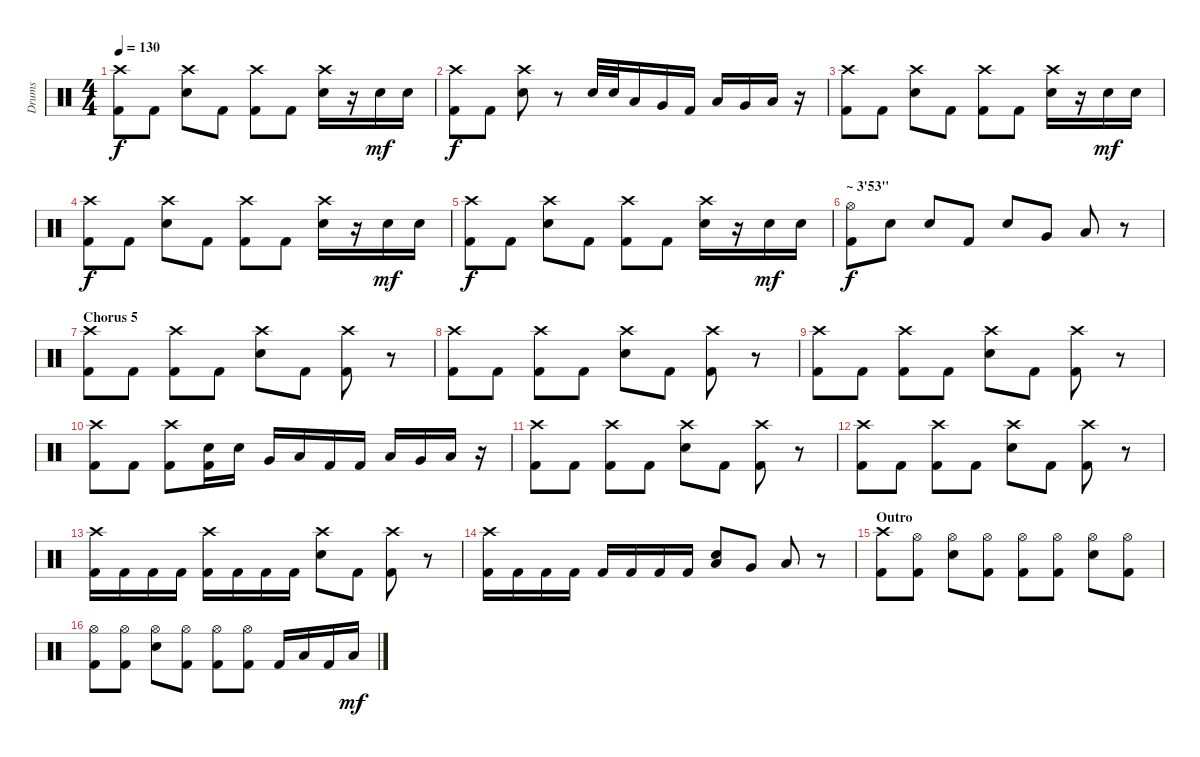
\track ("Drums" "Drums") {instrument percussion}
\staff {score}
\articulation defaults
\ts (4 4)
\tempo 130
\clef neutral
\ks c
("Kick (hit) 2" "Crash high (hit)").8{dy f} "Kick (hit) 2".8 ("Electric Snare (hit)" "Crash high (hit)").8 "Kick (hit) 2".8 ("Crash high (hit)" "Kick (hit) 2").8 "Kick (hit) 2".8 ("Electric Snare (hit)" "Crash high (hit)").16 r.16 "Electric Snare (hit)".16{dy mf} "Electric Snare (hit)".16 |
("Kick (hit) 2" "Crash high (hit)").8{dy f} "Kick (hit) 2".8 ("Electric Snare (hit)" "Crash high (hit)").8 r.8 "Electric Snare (hit)".32 "Electric Snare (hit)".32 "Low Tom (hit)".16 "Very Low Tom (hit)".16 "Kick (hit) 2".16 "Low Tom (hit)".16 "Very Low Tom (hit)".16 "Low Floor Tom (hit)".16 r.16 |
("Crash high (hit)" "Kick (hit) 2").8 "Kick (hit) 2".8 ("Electric Snare (hit)" "Crash high (hit)").8 "Kick (hit) 2".8 ("Crash high (hit)" "Kick (hit) 2").8 "Kick (hit) 2".8 ("Electric Snare (hit)" "Crash high (hit)").16 r.16 "Electric Snare (hit)".16{dy mf} "Electric Snare (hit)".16 |
("Crash high (hit)" "Kick (hit) 2").8{dy f} "Kick (hit) 2".8 ("Electric Snare (hit)" "Crash high (hit)").8 "Kick (hit) 2".8 ("Crash high (hit)" "Kick (hit) 2").8 "Kick (hit) 2".8 ("Electric Snare (hit)" "Crash high (hit)").16 r.16 "Electric Snare (hit)".16{dy mf} "Electric Snare (hit)".16 |
("Kick (hit) 2" "Crash high (hit)").8{dy f} "Kick (hit) 2".8 ("Electric Snare (hit)" "Crash high (hit)").8 "Kick (hit) 2".8 ("Crash high (hit)" "Kick (hit) 2").8 "Kick (hit) 2".8 ("Electric Snare (hit)" "Crash high (hit)").16 r.16 "Electric Snare (hit)".16{dy mf} "Electric Snare (hit)".16 |
\section ("" "~ 3'53\"")
("Hi-Hat (open)" "Kick (hit) 2").8{dy f} "Electric Snare (hit)".8 "Electric Snare (hit)".8 "Kick (hit) 2".8 "Electric Snare (hit)".8 "Very Low Tom (hit)".8 "Low Floor Tom (hit)".8 r.8 |
\section ("" "Chorus 5")
("Crash high (hit)" "Kick (hit) 2").8 "Kick (hit) 2".8 ("Crash high (hit)" "Kick (hit) 2").8 "Kick (hit) 2".8 ("Crash high (hit)" "Electric Snare (hit)").8 "Kick (hit) 2".8 ("Crash high (hit)" "Kick (hit) 2").8 r.8 |
("Crash high (hit)" "Kick (hit) 2").8 "Kick (hit) 2".8 ("Crash high (hit)" "Kick (hit) 2").8 "Kick (hit) 2".8 ("Crash high (hit)" "Electric Snare (hit)").8 "Kick (hit) 2".8 ("Crash high (hit)" "Kick (hit) 2").8 r.8 |
("Crash high (hit)" "Kick (hit) 2").8 "Kick (hit) 2".8 ("Crash high (hit)" "Kick (hit) 2").8 "Kick (hit) 2".8 ("Crash high (hit)" "Electric Snare (hit)").8 "Kick (hit) 2".8 ("Crash high (hit)" "Kick (hit) 2").8 r.8 |
("Crash high (hit)" "Kick (hit) 2").8 "Kick (hit) 2".8 ("Crash high (hit)" "Kick (hit) 2").8 ("Electric Snare (hit)" "Kick (hit) 2").16 "Electric Snare (hit)".16 "Very Low Tom (hit)".16 "Low Floor Tom (hit)".16 "Kick (hit) 2".16 "Kick (hit) 2".16 "Low Tom (hit)".16 "Very Low Tom (hit)".16 "Low Floor Tom (hit)".16 r.16 |
("Crash high (hit)" "Kick (hit) 2").8 "Kick (hit) 2".8 ("Crash high (hit)" "Kick (hit) 2").8 "Kick (hit) 2".8 ("Crash high (hit)" "Electric Snare (hit)").8 "Kick (hit) 2".8 ("Crash high (hit)" "Kick (hit) 2").8 r.8 |
("Crash high (hit)" "Kick (hit) 2").8 "Kick (hit) 2".8 ("Crash high (hit)" "Kick (hit) 2").8 "Kick (hit) 2".8 ("Crash high (hit)" "Electric Snare (hit)").8 "Kick (hit) 2".8 ("Crash high (hit)" "Kick (hit) 2").8 r.8 |
("Crash high (hit)" "Kick (hit) 2").16 "Kick (hit) 2".16 "Kick (hit) 2".16 "Kick (hit) 2".16 ("Crash high (hit)" "Kick (hit) 2").16 "Kick (hit) 2".16 "Kick (hit) 2".16 "Kick (hit) 2".16 ("Crash high (hit)" "Electric Snare (hit)").8 "Kick (hit) 2".8 ("Crash high (hit)" "Kick (hit) 2").8 r.8 |
("Crash high (hit)" "Kick (hit) 2").16 "Kick (hit) 2".16 "Kick (hit) 2".16 "Kick (hit) 2".16 "Kick (hit) 2".16 "Kick (hit) 2".16 "Kick (hit) 2".16 "Kick (hit) 2".16 ("Low Tom (hit)" "Electric Snare (hit)").8 "Very Low Tom (hit)".8 "Low Floor Tom (hit)".8 r.8 |
\section ("" "Outro")
("Crash high (hit)" "Kick (hit) 2").8 ("Hi-Hat (open)" "Kick (hit) 2").8 ("Hi-Hat (open)" "Electric Snare (hit)").8 ("Hi-Hat (open)" "Kick (hit) 2").8 ("Hi-Hat (open)" "Kick (hit) 2").8 ("Hi-Hat (open)" "Kick (hit) 2").8 ("Hi-Hat (open)" "Electric Snare (hit)").8 ("Hi-Hat (open)" "Kick (hit) 2").8 |
("Hi-Hat (open)" "Kick (hit) 2").8 ("Hi-Hat (open)" "Kick (hit) 2").8 ("Hi-Hat (open)" "Electric Snare (hit)").8 ("Hi-Hat (open)" "Kick (hit) 2").8 ("Hi-Hat (open)" "Kick (hit) 2").8 ("Hi-Hat (open)" "Kick (hit) 2").8 "Kick (hit) 2".16 "Low Floor Tom (hit)".16 "Kick (hit) 2".16 "Low Floor Tom (hit)".16{dy mf}
